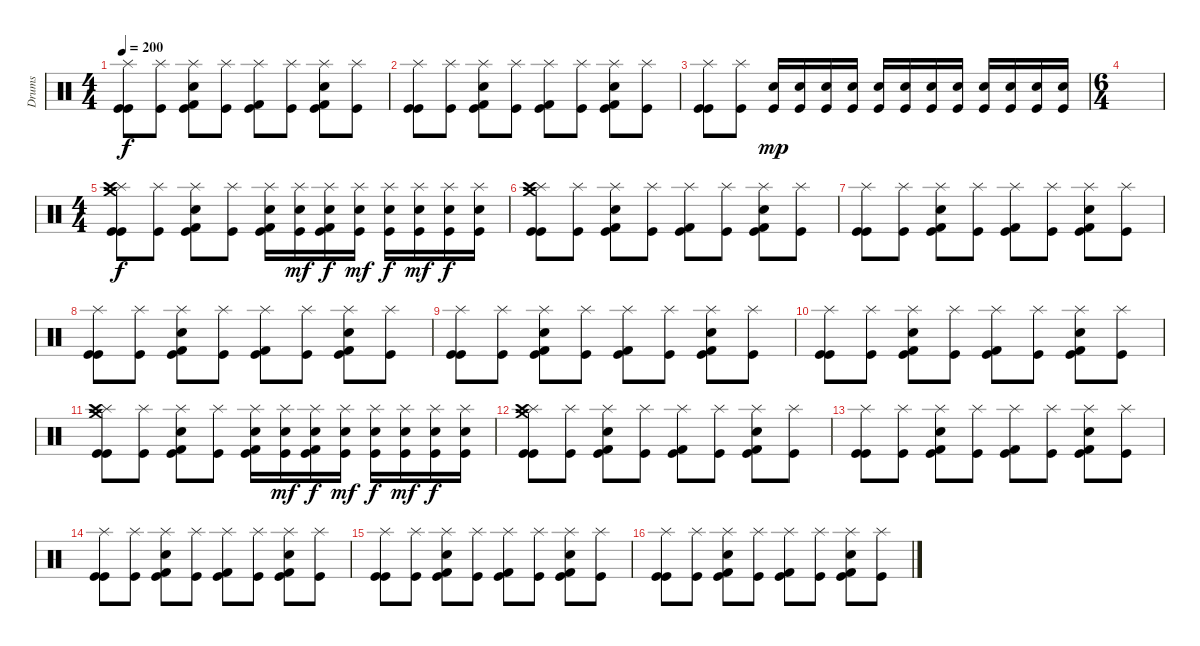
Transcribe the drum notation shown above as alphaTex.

\track ("Drums" "Drums") {instrument percussion}
\staff {score}
\articulation defaults
\ts (4 4)
\tempo 200
\clef neutral
\ks c
("Splash (hit)" "Kick (hit)" "Kick (hit)").8{dy f} ("Splash (hit)" "Kick (hit)").8 ("Splash (hit)" "Snare (hit) 2" "Kick (hit) 2" "Kick (hit)").8 ("Splash (hit)" "Kick (hit)").8 ("Splash (hit)" "Kick (hit) 2" "Kick (hit)").8 ("Splash (hit)" "Kick (hit)").8 ("Splash (hit)" "Snare (hit) 2" "Kick (hit) 2" "Kick (hit)").8 ("Splash (hit)" "Kick (hit)").8 |
("Splash (hit)" "Kick (hit)" "Kick (hit)").8 ("Splash (hit)" "Kick (hit)").8 ("Splash (hit)" "Snare (hit) 2" "Kick (hit) 2" "Kick (hit)").8 ("Splash (hit)" "Kick (hit)").8 ("Splash (hit)" "Kick (hit) 2" "Kick (hit)").8 ("Splash (hit)" "Kick (hit)").8 ("Splash (hit)" "Snare (hit) 2" "Kick (hit) 2" "Kick (hit)").8 ("Splash (hit)" "Kick (hit)").8 |
("Splash (hit)" "Kick (hit)" "Kick (hit)").8 ("Splash (hit)" "Kick (hit)").8 ("Snare (hit) 2" "Kick (hit)").16{dy mp} ("Snare (hit) 2" "Kick (hit)").16 ("Snare (hit) 2" "Kick (hit)").16 ("Electric Snare (hit)" "Kick (hit)").16 ("Electric Snare (hit)" "Kick (hit)").16 ("Electric Snare (hit)" "Kick (hit)").16 ("Snare (hit) 2" "Kick (hit)").16 ("Snare (hit) 2" "Kick (hit)").16 ("Snare (hit) 2" "Kick (hit)").16 ("Electric Snare (hit)" "Kick (hit)").16 ("Electric Snare (hit)" "Kick (hit)").16 ("Electric Snare (hit)" "Kick (hit)").16 |
\ts (6 4)
|
\ts (4 4)
("Splash (hit)" "Crash high (hit)" "Crash medium (hit)" "Kick (hit)" "Kick (hit)").8{dy f} ("Splash (hit)" "Kick (hit)").8 ("Splash (hit)" "Snare (hit) 2" "Kick (hit) 2" "Kick (hit)").8 ("Splash (hit)" "Kick (hit)").8 ("Splash (hit)" "Snare (hit) 2" "Kick (hit) 2" "Kick (hit)").16 ("Splash (hit)" "Snare (hit) 2" "Kick (hit)").16{dy mf} ("Splash (hit)" "Snare (hit) 2" "Kick (hit) 2" "Kick (hit)").16{dy f} ("Splash (hit)" "Snare (hit) 2" "Kick (hit)").16{dy mf} ("Splash (hit)" "Snare (hit) 2" "Kick (hit)").16{dy f} ("Splash (hit)" "Snare (hit) 2" "Kick (hit)").16{dy mf} ("Splash (hit)" "Snare (hit) 2" "Kick (hit)").16{dy f} ("Splash (hit)" "Snare (hit) 2" "Kick (hit)").16 |
("Splash (hit)" "Crash high (hit)" "Crash medium (hit)" "Kick (hit)" "Kick (hit)").8 ("Splash (hit)" "Kick (hit)").8 ("Splash (hit)" "Snare (hit) 2" "Kick (hit) 2" "Kick (hit)").8 ("Splash (hit)" "Kick (hit)").8 ("Splash (hit)" "Kick (hit) 2" "Kick (hit)").8 ("Splash (hit)" "Kick (hit)").8 ("Splash (hit)" "Snare (hit) 2" "Kick (hit) 2" "Kick (hit)").8 ("Splash (hit)" "Kick (hit)").8 |
("Splash (hit)" "Kick (hit)" "Kick (hit)").8 ("Splash (hit)" "Kick (hit)").8 ("Splash (hit)" "Snare (hit) 2" "Kick (hit) 2" "Kick (hit)").8 ("Splash (hit)" "Kick (hit)").8 ("Splash (hit)" "Kick (hit) 2" "Kick (hit)").8 ("Splash (hit)" "Kick (hit)").8 ("Splash (hit)" "Snare (hit) 2" "Kick (hit) 2" "Kick (hit)").8 ("Splash (hit)" "Kick (hit)").8 |
("Splash (hit)" "Kick (hit)" "Kick (hit)").8 ("Splash (hit)" "Kick (hit)").8 ("Splash (hit)" "Snare (hit) 2" "Kick (hit) 2" "Kick (hit)").8 ("Splash (hit)" "Kick (hit)").8 ("Splash (hit)" "Kick (hit) 2" "Kick (hit)").8 ("Splash (hit)" "Kick (hit)").8 ("Splash (hit)" "Snare (hit) 2" "Kick (hit) 2" "Kick (hit)").8 ("Splash (hit)" "Kick (hit)").8 |
("Splash (hit)" "Kick (hit)" "Kick (hit)").8 ("Splash (hit)" "Kick (hit)").8 ("Splash (hit)" "Snare (hit) 2" "Kick (hit) 2" "Kick (hit)").8 ("Splash (hit)" "Kick (hit)").8 ("Splash (hit)" "Kick (hit) 2" "Kick (hit)").8 ("Splash (hit)" "Kick (hit)").8 ("Splash (hit)" "Snare (hit) 2" "Kick (hit) 2" "Kick (hit)").8 ("Splash (hit)" "Kick (hit)").8 |
("Splash (hit)" "Kick (hit)" "Kick (hit)").8 ("Splash (hit)" "Kick (hit)").8 ("Splash (hit)" "Snare (hit) 2" "Kick (hit) 2" "Kick (hit)").8 ("Splash (hit)" "Kick (hit)").8 ("Splash (hit)" "Kick (hit) 2" "Kick (hit)").8 ("Splash (hit)" "Kick (hit)").8 ("Splash (hit)" "Snare (hit) 2" "Kick (hit) 2" "Kick (hit)").8 ("Splash (hit)" "Kick (hit)").8 |
("Splash (hit)" "Crash high (hit)" "Crash medium (hit)" "Kick (hit)" "Kick (hit)").8 ("Splash (hit)" "Kick (hit)").8 ("Splash (hit)" "Snare (hit) 2" "Kick (hit) 2" "Kick (hit)").8 ("Splash (hit)" "Kick (hit)").8 ("Splash (hit)" "Snare (hit) 2" "Kick (hit) 2" "Kick (hit)").16 ("Splash (hit)" "Snare (hit) 2" "Kick (hit)").16{dy mf} ("Splash (hit)" "Snare (hit) 2" "Kick (hit) 2" "Kick (hit)").16{dy f} ("Splash (hit)" "Snare (hit) 2" "Kick (hit)").16{dy mf} ("Splash (hit)" "Snare (hit) 2" "Kick (hit)").16{dy f} ("Splash (hit)" "Snare (hit) 2" "Kick (hit)").16{dy mf} ("Splash (hit)" "Snare (hit) 2" "Kick (hit)").16{dy f} ("Splash (hit)" "Snare (hit) 2" "Kick (hit)").16 |
("Splash (hit)" "Crash high (hit)" "Crash medium (hit)" "Kick (hit)" "Kick (hit)").8 ("Splash (hit)" "Kick (hit)").8 ("Splash (hit)" "Snare (hit) 2" "Kick (hit) 2" "Kick (hit)").8 ("Splash (hit)" "Kick (hit)").8 ("Splash (hit)" "Kick (hit) 2" "Kick (hit)").8 ("Splash (hit)" "Kick (hit)").8 ("Splash (hit)" "Snare (hit) 2" "Kick (hit) 2" "Kick (hit)").8 ("Splash (hit)" "Kick (hit)").8 |
("Splash (hit)" "Kick (hit)" "Kick (hit)").8 ("Splash (hit)" "Kick (hit)").8 ("Splash (hit)" "Snare (hit) 2" "Kick (hit) 2" "Kick (hit)").8 ("Splash (hit)" "Kick (hit)").8 ("Splash (hit)" "Kick (hit) 2" "Kick (hit)").8 ("Splash (hit)" "Kick (hit)").8 ("Splash (hit)" "Snare (hit) 2" "Kick (hit) 2" "Kick (hit)").8 ("Splash (hit)" "Kick (hit)").8 |
("Splash (hit)" "Kick (hit)" "Kick (hit)").8 ("Splash (hit)" "Kick (hit)").8 ("Splash (hit)" "Snare (hit) 2" "Kick (hit) 2" "Kick (hit)").8 ("Splash (hit)" "Kick (hit)").8 ("Splash (hit)" "Kick (hit) 2" "Kick (hit)").8 ("Splash (hit)" "Kick (hit)").8 ("Splash (hit)" "Snare (hit) 2" "Kick (hit) 2" "Kick (hit)").8 ("Splash (hit)" "Kick (hit)").8 |
("Splash (hit)" "Kick (hit)" "Kick (hit)").8 ("Splash (hit)" "Kick (hit)").8 ("Splash (hit)" "Snare (hit) 2" "Kick (hit) 2" "Kick (hit)").8 ("Splash (hit)" "Kick (hit)").8 ("Splash (hit)" "Kick (hit) 2" "Kick (hit)").8 ("Splash (hit)" "Kick (hit)").8 ("Splash (hit)" "Snare (hit) 2" "Kick (hit) 2" "Kick (hit)").8 ("Splash (hit)" "Kick (hit)").8 |
("Splash (hit)" "Kick (hit)" "Kick (hit)").8 ("Splash (hit)" "Kick (hit)").8 ("Splash (hit)" "Snare (hit) 2" "Kick (hit) 2" "Kick (hit)").8 ("Splash (hit)" "Kick (hit)").8 ("Splash (hit)" "Kick (hit) 2" "Kick (hit)").8 ("Splash (hit)" "Kick (hit)").8 ("Splash (hit)" "Snare (hit) 2" "Kick (hit) 2" "Kick (hit)").8 ("Splash (hit)" "Kick (hit)").8
